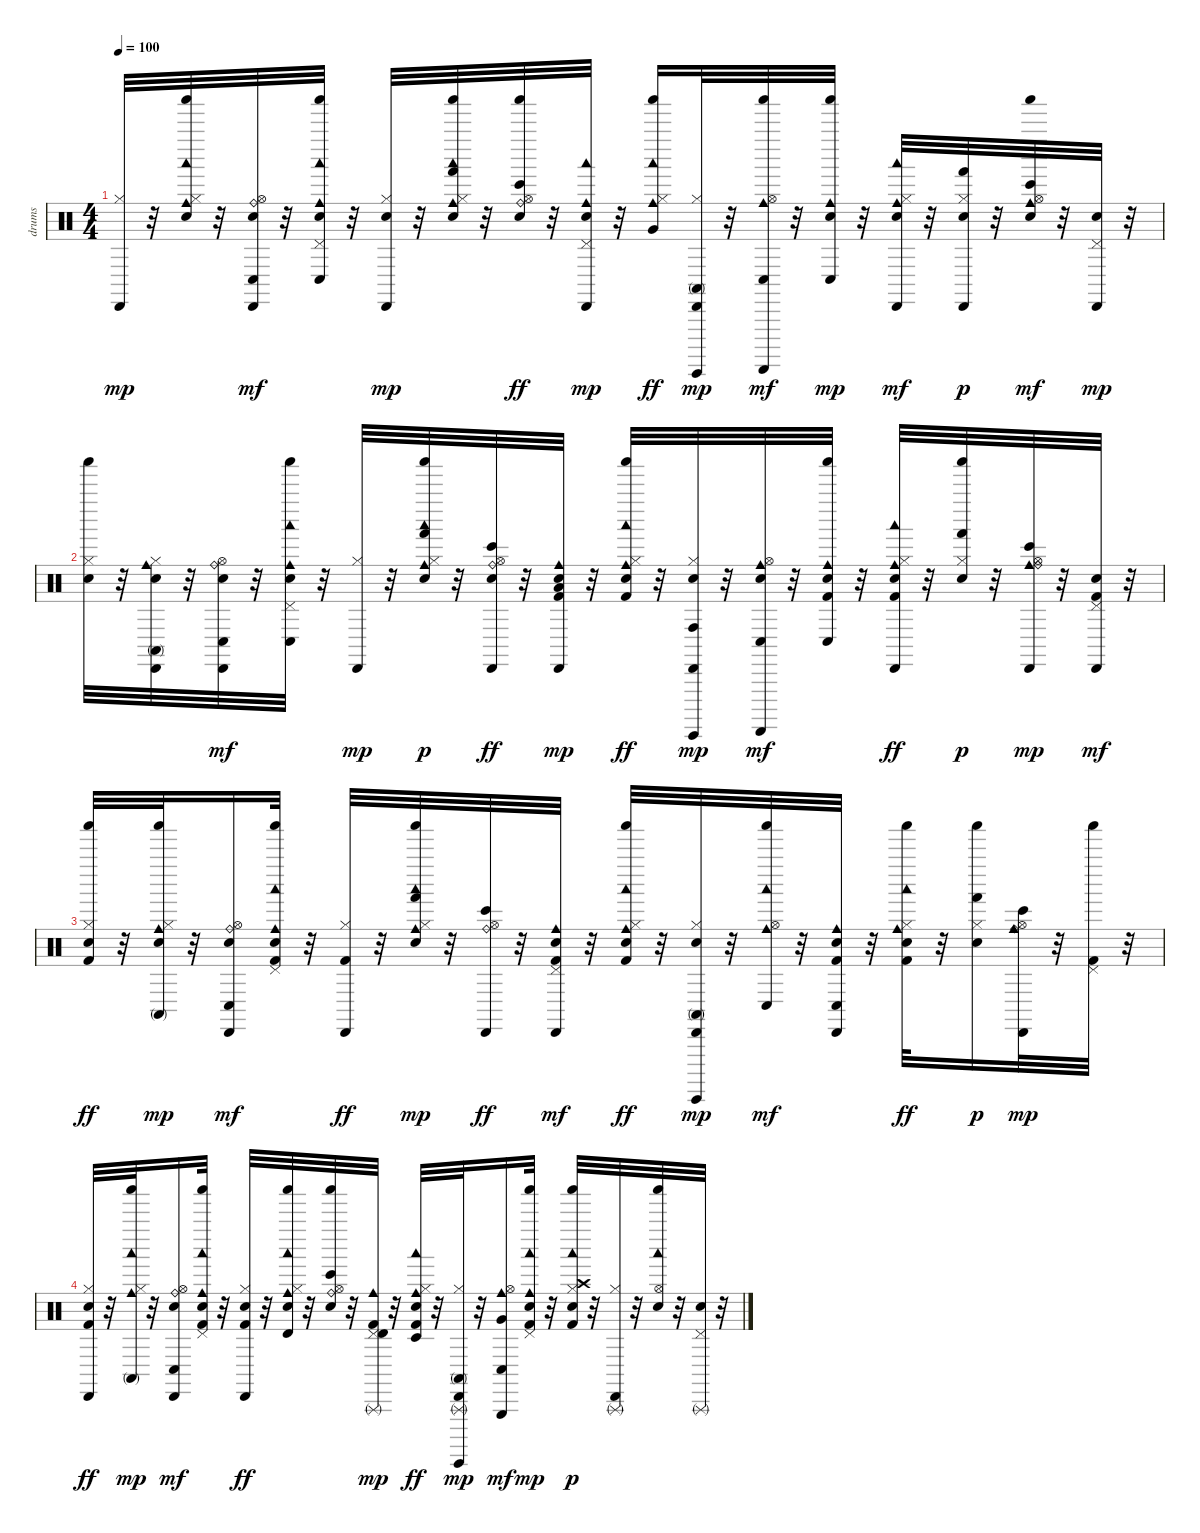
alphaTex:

\track ("drums" "drums") {instrument percussion}
\staff {score}
\articulation defaults
\ts (4 4)
\tempo 100
\clef neutral
\ks c
("Hi-Hat (closed)" "Cabasa (hit)").32{dy mp} r.32 ("Snare (hit) 2" "Hi-Hat (closed)" "Woodblock low (hit)" "Shaker (hit)" "Cowbell medium (hit)").32 r.32 ("Snare (hit) 2" "Hi-Hat (open)" "Cabasa (hit)" "Ride (bell)" "Conga low (hit)").32{dy mf} r.32 ("Snare (hit) 2" "Pedal Hi-Hat (hit)" "Woodblock low (hit)" "Shaker (hit)" "Cowbell medium (hit)" "Conga low (hit)").32 r.32 ("Snare (hit) 2" "Hi-Hat (closed)" "Cabasa (hit)").32{dy mp} r.32 ("Snare (hit) 2" "Hi-Hat (closed)" "Woodblock low (hit)" "Shaker (hit)" "Cowbell medium (hit)" "Hand (hit)").32 r.32 ("Snare (hit) 2" "Hi-Hat (open)" "Shaker (hit)" "Ride (bell)" "Bongo High (hit)").32{dy ff} r.32 ("Snare (hit) 2" "Pedal Hi-Hat (hit)" "Woodblock low (hit)" "Cabasa (hit)" "Cowbell medium (hit)").32{dy mp} r.32 ("Hi-Hat (closed)" "Woodblock low (hit)" "Shaker (hit)" "Cowbell medium (hit)" "Very Low Tom (hit)").16{dy ff} ("Hi-Hat (closed)" "Cabasa (hit)" "Guiro (hit)" "Conga high (mute)").32{dy mp} r.32 ("Hi-Hat (open)" "Shaker (hit)" "Guiro (scrap-return)" "Cowbell medium (hit)" "Conga low (hit)").32{dy mf} r.32 ("Snare (hit) 2" "Shaker (hit)" "Cowbell medium (hit)" "Conga low (hit)").32{dy mp} r.32 ("Snare (hit) 2" "Hi-Hat (closed)" "Woodblock low (hit)" "Cabasa (hit)" "Cowbell medium (hit)").32{dy mf} r.32 ("Snare (hit) 2" "Hi-Hat (closed)" "Cabasa (hit)" "Hand (hit)").32{dy p} r.32 ("Snare (hit) 2" "Hi-Hat (open)" "Shaker (hit)" "Cowbell medium (hit)" "Bongo High (hit)").32{dy mf} r.32 ("Snare (hit) 2" "Pedal Hi-Hat (hit)" "Cabasa (hit)").32{dy mp} r.32 |
("Snare (hit) 2" "Hi-Hat (closed)" "Shaker (hit)").32 r.32 ("Snare (hit) 2" "Hi-Hat (closed)" "Cabasa (hit)" "Cowbell medium (hit)" "Conga high (mute)").32 r.32 ("Snare (hit) 2" "Hi-Hat (open)" "Cabasa (hit)" "Ride (bell)" "Conga low (hit)").32{dy mf} r.32 ("Snare (hit) 2" "Pedal Hi-Hat (hit)" "Woodblock low (hit)" "Shaker (hit)" "Cowbell medium (hit)" "Conga low (hit)").32 r.32 ("Hi-Hat (closed)" "Cabasa (hit)").32{dy mp} r.32 ("Snare (hit) 2" "Hi-Hat (closed)" "Woodblock low (hit)" "Shaker (hit)" "Cowbell medium (hit)" "Hand (hit)").32{dy p} r.32 ("Snare (hit) 2" "Hi-Hat (open)" "Cabasa (hit)" "Ride (bell)" "Bongo High (hit)").32{dy ff} r.32 ("Snare (hit) 2" "Cabasa (hit)" "Cowbell medium (hit)" "Kick (hit) 2" "Low Tom (hit)").32{dy mp} r.32 ("Snare (hit) 2" "Hi-Hat (closed)" "Woodblock low (hit)" "Shaker (hit)" "Cowbell medium (hit)" "Kick (hit) 2").32{dy ff} r.32 ("Snare (hit) 2" "Hi-Hat (closed)" "Cabasa (hit)" "Guiro (hit)" "Conga high (hit)").32{dy mp} r.32 ("Snare (hit) 2" "Hi-Hat (open)" "Guiro (scrap-return)" "Cowbell medium (hit)" "Conga low (hit)").32{dy mf} r.32 ("Snare (hit) 2" "Shaker (hit)" "Cowbell medium (hit)" "Kick (hit) 2" "Conga low (hit)").32 r.32 ("Snare (hit) 2" "Hi-Hat (closed)" "Woodblock low (hit)" "Cabasa (hit)" "Cowbell medium (hit)" "Kick (hit) 2").32{dy ff} r.32 ("Snare (hit) 2" "Hi-Hat (closed)" "Shaker (hit)" "Hand (hit)").32{dy p} r.32 ("Hi-Hat (open)" "Cabasa (hit)" "Cowbell medium (hit)" "Ride (bell)" "Bongo High (hit)").32{dy mp} r.32 ("Snare (hit) 2" "Pedal Hi-Hat (hit)" "Cabasa (hit)" "Kick (hit) 2").32{dy mf} r.32 |
("Snare (hit) 2" "Hi-Hat (closed)" "Shaker (hit)" "Kick (hit) 2").32{dy ff} r.32 ("Snare (hit) 2" "Hi-Hat (closed)" "Shaker (hit)" "Cowbell medium (hit)" "Conga high (mute)").32{dy mp} r.32 ("Snare (hit) 2" "Hi-Hat (open)" "Cabasa (hit)" "Ride (bell)" "Conga low (hit)").16{dy mf} ("Snare (hit) 2" "Pedal Hi-Hat (hit)" "Woodblock low (hit)" "Shaker (hit)" "Cowbell medium (hit)" "Kick (hit) 2").32 r.32 ("Hi-Hat (closed)" "Cabasa (hit)" "Kick (hit) 2").32{dy ff} r.32 ("Snare (hit) 2" "Hi-Hat (closed)" "Woodblock low (hit)" "Shaker (hit)" "Cowbell medium (hit)" "Hand (hit)").32{dy mp} r.32 ("Hi-Hat (open)" "Cabasa (hit)" "Ride (bell)" "Bongo High (hit)").32{dy ff} r.32 ("Snare (hit) 2" "Pedal Hi-Hat (hit)" "Cabasa (hit)" "Cowbell medium (hit)" "Kick (hit) 2").32{dy mf} r.32 ("Snare (hit) 2" "Hi-Hat (closed)" "Woodblock low (hit)" "Shaker (hit)" "Cowbell medium (hit)" "Kick (hit) 2").32{dy ff} r.32 ("Snare (hit) 2" "Hi-Hat (closed)" "Cabasa (hit)" "Guiro (hit)" "Conga high (mute)").32{dy mp} r.32 ("Hi-Hat (open)" "Woodblock low (hit)" "Shaker (hit)" "Cowbell medium (hit)" "Conga low (hit)").32{dy mf} r.32 ("Snare (hit) 2" "Cabasa (hit)" "Cowbell medium (hit)" "Kick (hit) 2" "Conga low (hit)").32 r.32 ("Snare (hit) 2" "Hi-Hat (closed)" "Woodblock low (hit)" "Shaker (hit)" "Cowbell medium (hit)" "Kick (hit) 2").32{dy ff} r.32 ("Snare (hit) 2" "Hi-Hat (closed)" "Shaker (hit)" "Hand (hit)").16{dy p} ("Hi-Hat (open)" "Cabasa (hit)" "Cowbell medium (hit)" "Ride (bell)" "Bongo High (hit)").32{dy mp} r.32 ("Pedal Hi-Hat (hit)" "Shaker (hit)" "Kick (hit) 2").32 r.32 |
("Snare (hit) 2" "Hi-Hat (closed)" "Cabasa (hit)" "Kick (hit) 2").32{dy ff} r.32 ("Hi-Hat (closed)" "Woodblock low (hit)" "Shaker (hit)" "Cowbell medium (hit)" "Conga high (mute)").32{dy mp} r.32 ("Snare (hit) 2" "Hi-Hat (open)" "Cabasa (hit)" "Ride (bell)" "Conga low (hit)").16{dy mf} ("Snare (hit) 2" "Pedal Hi-Hat (hit)" "Woodblock low (hit)" "Shaker (hit)" "Cowbell medium (hit)" "Kick (hit) 2").32 r.32 ("Snare (hit) 2" "Hi-Hat (closed)" "Cabasa (hit)" "Kick (hit) 2").32{dy ff} r.32 ("Snare (hit) 2" "Hi-Hat (closed)" "Woodblock low (hit)" "Shaker (hit)" "Timbale high (hit)" "Cowbell medium (hit)").32 r.32 ("Snare (hit) 2" "Hi-Hat (open)" "Shaker (hit)" "Ride (bell)" "Bongo High (hit)").32 r.32 ("Pedal Hi-Hat (hit)" "Timbale high (hit)" "Triangle (rnute)" "Cowbell medium (hit)" "Kick (hit) 2").32{dy mp} r.32 ("Snare (hit) 2" "Hi-Hat (closed)" "Woodblock low (hit)" "Timbale low (hit)" "Cowbell medium (hit)" "Kick (hit) 2").32{dy ff} r.32 ("Hi-Hat (closed)" "Cabasa (hit)" "Triangle (rnute)" "Guiro (hit)" "Conga high (mute)").32{dy mp} r.32 ("Very Low Tom (hit)" "Hi-Hat (open)" "Triangle (hit)" "Cowbell medium (hit)" "Conga low (hit)").16{dy mf} ("Snare (hit) 2" "Pedal Hi-Hat (hit)" "Woodblock low (hit)" "Shaker (hit)" "Cowbell medium (hit)" "Kick (hit) 2").32{dy mp} r.32 ("Crash high (hit)" "Kick (hit) 2" "Snare (hit) 2" "Hi-Hat (closed)" "Woodblock low (hit)" "Shaker (hit)").32{dy p} r.32 ("Hi-Hat (closed)" "Cabasa (hit)" "Triangle (rnute)").32 r.32 ("Snare (hit) 2" "Hi-Hat (open)" "Woodblock low (hit)" "Shaker (hit)").32 r.32 ("Snare (hit) 2" "Pedal Hi-Hat (hit)" "Triangle (rnute)").32 r.32
